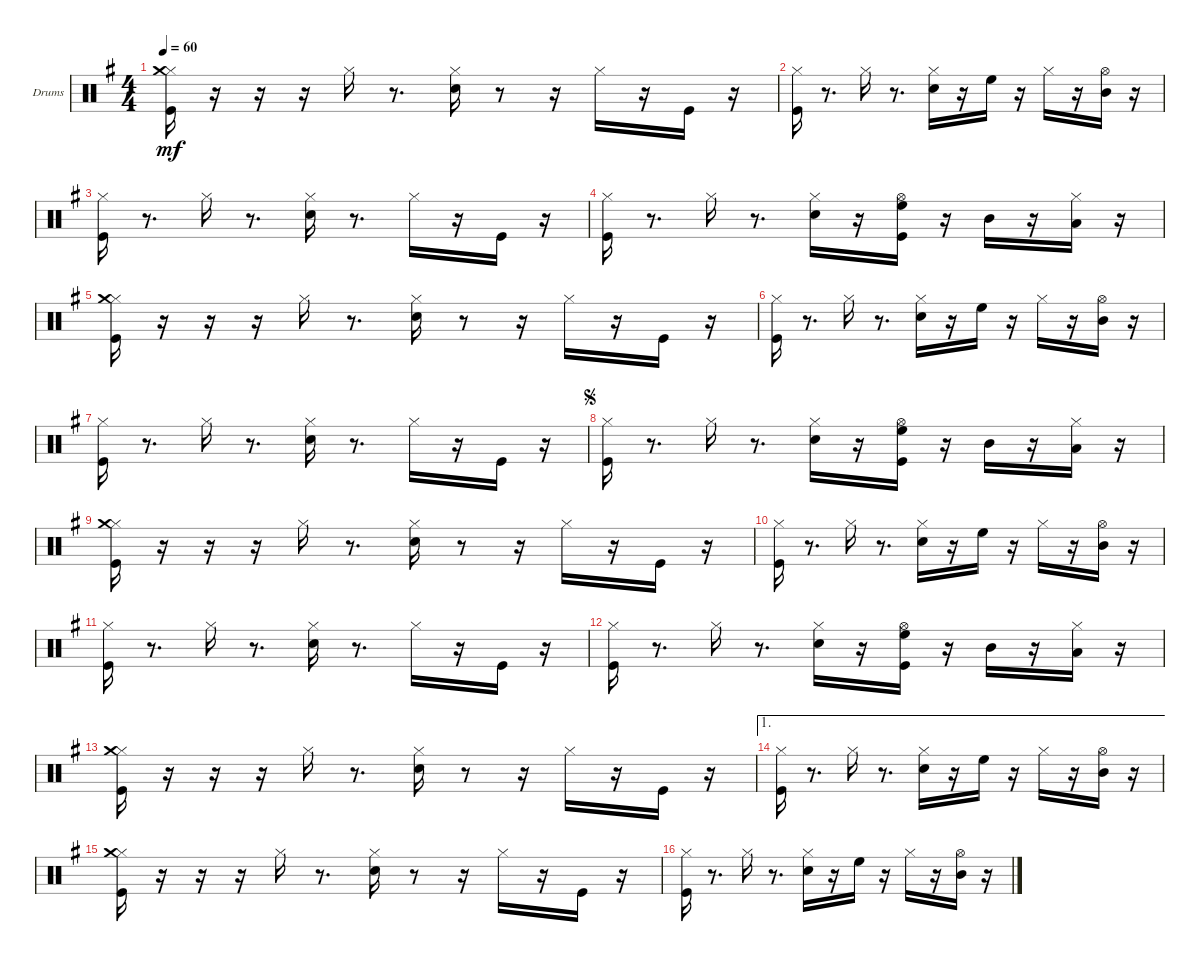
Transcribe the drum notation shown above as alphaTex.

\bracketExtendMode groupsimilarinstruments
\firstSystemTrackNameOrientation horizontal
\otherSystemsTrackNameOrientation horizontal
\track ("Drumkit" "Drums") {instrument percussion}
\staff {score}
\articulation defaults
\ts (4 4)
\tempo 60
\clef neutral
\scale
0.311475
\ks g
("Kick (hit)" "Hi-Hat (closed)" "Crash medium (hit)").16{dy mf} r.16 r.16 r.16 "Hi-Hat (closed)".16 r.8{d} ("Hi-Hat (closed)" "Snare (hit) 2").16 r.8 r.16 "Hi-Hat (closed)".16 r.16 "Kick (hit)".16 r.16 |
\scale
0.333333 ("Kick (hit)" "Hi-Hat (closed)").16 r.8{d} "Hi-Hat (closed)".16 r.8{d} ("Hi-Hat (closed)" "Snare (hit) 2").16 r.16 "High Floor Tom (hit)".16 r.16 "Hi-Hat (closed)".16 r.16 ("Hi-Hat (open)" "Mid Tom (hit)").16 r.16 |
\scale
0.333333 ("Kick (hit)" "Hi-Hat (closed)").16 r.8{d} "Hi-Hat (closed)".16 r.8{d} ("Hi-Hat (closed)" "Snare (hit) 2").16 r.8{d} "Hi-Hat (closed)".16 r.16 "Kick (hit)".16 r.16 |
\scale
0.333333 ("Kick (hit)" "Hi-Hat (closed)").16 r.8{d} "Hi-Hat (closed)".16 r.8{d} ("Hi-Hat (closed)" "Snare (hit) 2").16 r.16 ("Kick (hit)" "Hi-Hat (open)" "High Floor Tom (hit)").16 r.16 "Mid Tom (hit)".16 r.16 ("Hi-Hat (closed)" "Low Tom (hit)").16 r.16 |
\scale
0.333333 ("Kick (hit)" "Hi-Hat (closed)" "Crash medium (hit)").16 r.16 r.16 r.16 "Hi-Hat (closed)".16 r.8{d} ("Hi-Hat (closed)" "Snare (hit) 2").16 r.8 r.16 "Hi-Hat (closed)".16 r.16 "Kick (hit)".16 r.16 |
\scale
0.333333 ("Kick (hit)" "Hi-Hat (closed)").16 r.8{d} "Hi-Hat (closed)".16 r.8{d} ("Hi-Hat (closed)" "Snare (hit) 2").16 r.16 "High Floor Tom (hit)".16 r.16 "Hi-Hat (closed)".16 r.16 ("Hi-Hat (open)" "Mid Tom (hit)").16 r.16 |
\scale
0.333333 ("Kick (hit)" "Hi-Hat (closed)").16 r.8{d} "Hi-Hat (closed)".16 r.8{d} ("Hi-Hat (closed)" "Snare (hit) 2").16 r.8{d} "Hi-Hat (closed)".16 r.16 "Kick (hit)".16 r.16 |
\jump segno
\scale
0.333333 ("Kick (hit)" "Hi-Hat (closed)").16 r.8{d} "Hi-Hat (closed)".16 r.8{d} ("Hi-Hat (closed)" "Snare (hit) 2").16 r.16 ("Kick (hit)" "Hi-Hat (open)" "High Floor Tom (hit)").16 r.16 "Mid Tom (hit)".16 r.16 ("Hi-Hat (closed)" "Low Tom (hit)").16 r.16 |
\scale
0.333333 ("Kick (hit)" "Hi-Hat (closed)" "Crash medium (hit)").16 r.16 r.16 r.16 "Hi-Hat (closed)".16 r.8{d} ("Hi-Hat (closed)" "Snare (hit) 2").16 r.8 r.16 "Hi-Hat (closed)".16 r.16 "Kick (hit)".16 r.16 |
\scale
0.333333 ("Kick (hit)" "Hi-Hat (closed)").16 r.8{d} "Hi-Hat (closed)".16 r.8{d} ("Hi-Hat (closed)" "Snare (hit) 2").16 r.16 "High Floor Tom (hit)".16 r.16 "Hi-Hat (closed)".16 r.16 ("Hi-Hat (open)" "Mid Tom (hit)").16 r.16 |
\scale
0.333333 ("Kick (hit)" "Hi-Hat (closed)").16 r.8{d} "Hi-Hat (closed)".16 r.8{d} ("Hi-Hat (closed)" "Snare (hit) 2").16 r.8{d} "Hi-Hat (closed)".16 r.16 "Kick (hit)".16 r.16 |
\scale
0.333333 ("Kick (hit)" "Hi-Hat (closed)").16 r.8{d} "Hi-Hat (closed)".16 r.8{d} ("Hi-Hat (closed)" "Snare (hit) 2").16 r.16 ("Kick (hit)" "Hi-Hat (open)" "High Floor Tom (hit)").16 r.16 "Mid Tom (hit)".16 r.16 ("Hi-Hat (closed)" "Low Tom (hit)").16 r.16 |
\scale
0.333333 ("Kick (hit)" "Hi-Hat (closed)" "Crash medium (hit)").16 r.16 r.16 r.16 "Hi-Hat (closed)".16 r.8{d} ("Hi-Hat (closed)" "Snare (hit) 2").16 r.8 r.16 "Hi-Hat (closed)".16 r.16 "Kick (hit)".16 r.16 |
\ae 1
\scale
0.333333 ("Kick (hit)" "Hi-Hat (closed)").16 r.8{d} "Hi-Hat (closed)".16 r.8{d} ("Hi-Hat (closed)" "Snare (hit) 2").16 r.16 "High Floor Tom (hit)".16 r.16 "Hi-Hat (closed)".16 r.16 ("Hi-Hat (open)" "Mid Tom (hit)").16 r.16 |
\scale
0.333333 ("Kick (hit)" "Hi-Hat (closed)" "Crash medium (hit)").16 r.16 r.16 r.16 "Hi-Hat (closed)".16 r.8{d} ("Hi-Hat (closed)" "Snare (hit) 2").16 r.8 r.16 "Hi-Hat (closed)".16 r.16 "Kick (hit)".16 r.16 |
\scale
0.333333 ("Kick (hit)" "Hi-Hat (closed)").16 r.8{d} "Hi-Hat (closed)".16 r.8{d} ("Hi-Hat (closed)" "Snare (hit) 2").16 r.16 "High Floor Tom (hit)".16 r.16 "Hi-Hat (closed)".16 r.16 ("Hi-Hat (open)" "Mid Tom (hit)").16 r.16
